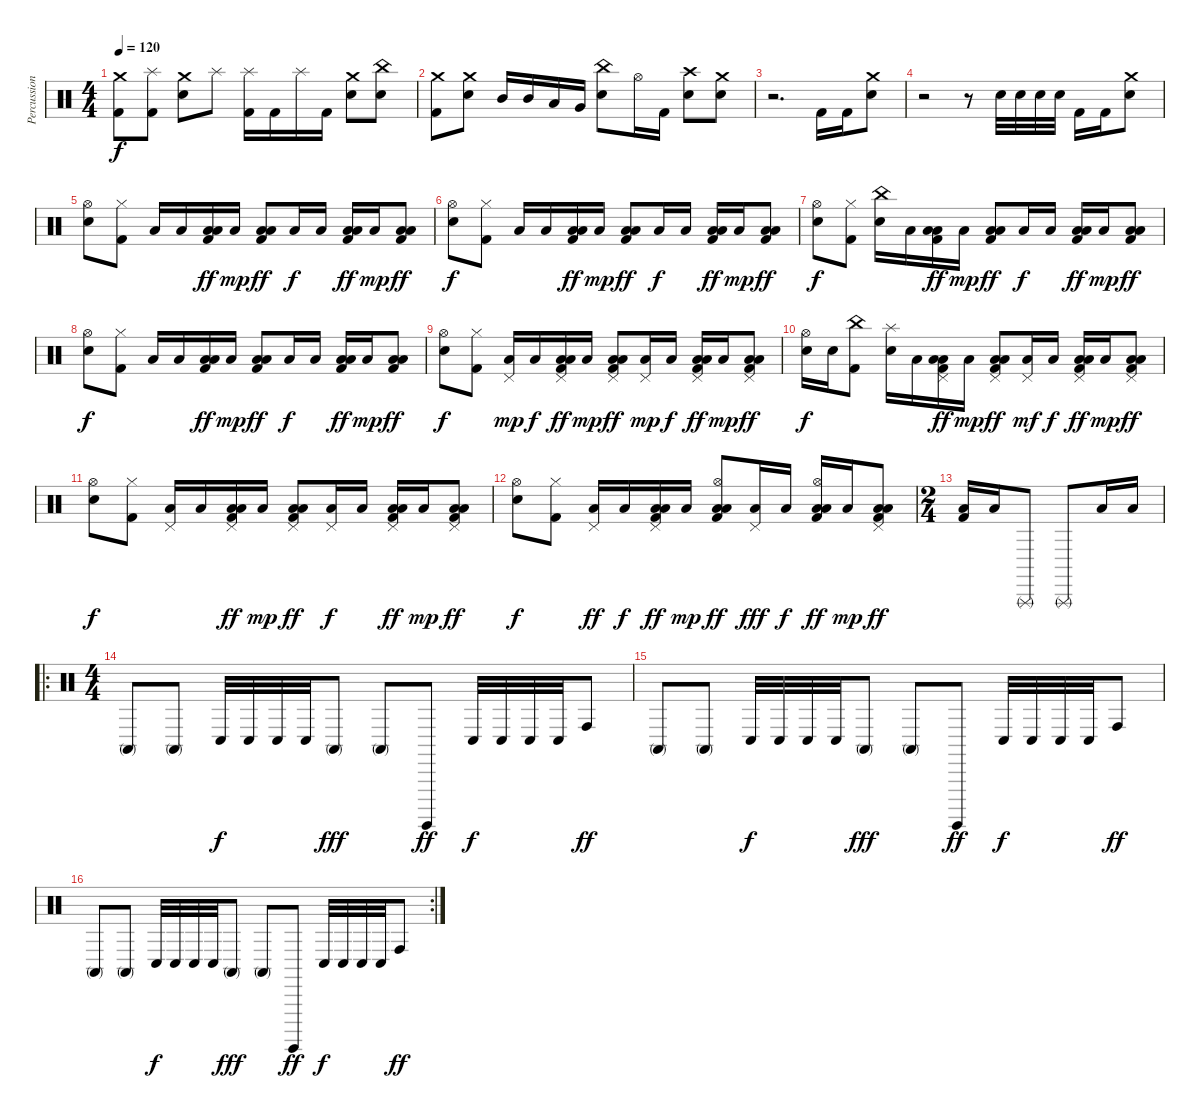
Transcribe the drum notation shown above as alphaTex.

\track ("Percussion" "Percussion") {instrument percussion}
\staff {score}
\articulation defaults
\ts (4 4)
\tempo 120
\clef neutral
\ks c
("Crash medium (hit)" "Kick (hit) 2").8{dy f} ("Splash (hit)" "Kick (hit) 2").8 ("Crash medium (hit)" "Snare (hit) 2").8 "Splash (hit)".8 ("Splash (hit)" "Kick (hit) 2").16 "Kick (hit) 2".16 "Splash (hit)".16 "Kick (hit) 2".16 ("Crash medium (hit)" "Snare (hit) 2").8 ("China (hit)" "Snare (hit) 2").8 |
("Crash medium (hit)" "Kick (hit) 2").8 ("Crash medium (hit)" "Snare (hit) 2").8 "Mid Tom (hit)".16 "Mid Tom (hit)".16 "Low Tom (hit)".16 "Very Low Tom (hit)".16 ("China (hit)" "Snare (hit) 2").8 "Hi-Hat (open)".16 "Kick (hit) 2".16 ("Crash high (hit)" "Snare (hit) 2").8 ("Crash medium (hit)" "Snare (hit) 2").8 |
r.2{d} "Kick (hit) 2".16 "Kick (hit) 2".16 ("Crash medium (hit)" "Snare (hit) 2").8 |
r.2 r.8 "Snare (hit) 2".32 "Snare (hit) 2".32 "Snare (hit) 2".32 "Snare (hit) 2".32 "Kick (hit) 2".16 "Kick (hit) 2".16 ("Crash medium (hit)" "Snare (hit) 2").8 |
("Snare (hit) 2" "Hi-Hat (open)").8 ("Kick (hit) 2" "Hi-Hat (closed)").8 "Low Floor Tom (hit)".16 "Low Floor Tom (hit)".16 ("Low Floor Tom (hit)" "Low Tom (hit)" "Kick (hit) 2").16{dy ff} "Low Tom (hit)".16{dy mp} ("Low Floor Tom (hit)" "Low Tom (hit)" "Kick (hit) 2").8{dy ff} "Low Floor Tom (hit)".16{dy f} "Low Floor Tom (hit)".16 ("Low Floor Tom (hit)" "Low Tom (hit)" "Kick (hit) 2").16{dy ff} "Low Tom (hit)".16{dy mp} ("Low Floor Tom (hit)" "Low Tom (hit)" "Kick (hit) 2").8{dy ff} |
("Snare (hit) 2" "Hi-Hat (open)").8{dy f} ("Kick (hit) 2" "Hi-Hat (closed)").8 "Low Floor Tom (hit)".16 "Low Floor Tom (hit)".16 ("Low Floor Tom (hit)" "Low Tom (hit)" "Kick (hit) 2").16{dy ff} "Low Tom (hit)".16{dy mp} ("Low Floor Tom (hit)" "Low Tom (hit)" "Kick (hit) 2").8{dy ff} "Low Floor Tom (hit)".16{dy f} "Low Floor Tom (hit)".16 ("Low Floor Tom (hit)" "Low Tom (hit)" "Kick (hit) 2").16{dy ff} "Low Tom (hit)".16{dy mp} ("Low Floor Tom (hit)" "Low Tom (hit)" "Kick (hit) 2").8{dy ff} |
("Snare (hit) 2" "Hi-Hat (open)").8{dy f} ("Kick (hit) 2" "Hi-Hat (closed)").8 ("Snare (hit) 2" "China (hit)").16 "Low Floor Tom (hit)".16 ("Low Floor Tom (hit)" "Low Tom (hit)" "Kick (hit) 2").16{dy ff} "Low Tom (hit)".16{dy mp} ("Low Floor Tom (hit)" "Low Tom (hit)" "Kick (hit) 2").8{dy ff} "Low Floor Tom (hit)".16{dy f} "Low Floor Tom (hit)".16 ("Low Floor Tom (hit)" "Low Tom (hit)" "Kick (hit) 2").16{dy ff} "Low Tom (hit)".16{dy mp} ("Low Floor Tom (hit)" "Low Tom (hit)" "Kick (hit) 2").8{dy ff} |
("Snare (hit) 2" "Hi-Hat (open)").8{dy f} ("Kick (hit) 2" "Hi-Hat (closed)").8 "Low Floor Tom (hit)".16 "Low Floor Tom (hit)".16 ("Low Floor Tom (hit)" "Low Tom (hit)" "Kick (hit) 2").16{dy ff} "Low Tom (hit)".16{dy mp} ("Low Floor Tom (hit)" "Low Tom (hit)" "Kick (hit) 2").8{dy ff} "Low Floor Tom (hit)".16{dy f} "Low Floor Tom (hit)".16 ("Low Floor Tom (hit)" "Low Tom (hit)" "Kick (hit) 2").16{dy ff} "Low Tom (hit)".16{dy mp} ("Low Floor Tom (hit)" "Low Tom (hit)" "Kick (hit) 2").8{dy ff} |
("Snare (hit) 2" "Hi-Hat (open)").8{dy f} ("Kick (hit) 2" "Hi-Hat (closed)").8 ("Pedal Hi-Hat (hit)" "Low Floor Tom (hit)").16{dy mp} "Low Floor Tom (hit)".16{dy f} ("Pedal Hi-Hat (hit)" "Low Floor Tom (hit)" "Low Tom (hit)" "Kick (hit) 2").16{dy ff} "Low Tom (hit)".16{dy mp} ("Pedal Hi-Hat (hit)" "Low Floor Tom (hit)" "Low Tom (hit)" "Kick (hit) 2").8{dy ff} ("Pedal Hi-Hat (hit)" "Low Floor Tom (hit)").16{dy mp} "Low Floor Tom (hit)".16{dy f} ("Pedal Hi-Hat (hit)" "Low Floor Tom (hit)" "Low Tom (hit)" "Kick (hit) 2").16{dy ff} "Low Tom (hit)".16{dy mp} ("Pedal Hi-Hat (hit)" "Low Floor Tom (hit)" "Low Tom (hit)" "Kick (hit) 2").8{dy ff} |
("Snare (hit) 2" "Hi-Hat (open)").16{dy f} "Snare (hit) 2".16 ("Kick (hit) 2" "China (hit)").8 ("Snare (hit) 2" "Splash (hit)").16 "Low Floor Tom (hit)".16 ("Pedal Hi-Hat (hit)" "Low Floor Tom (hit)" "Low Tom (hit)" "Kick (hit) 2").16{dy ff} "Low Tom (hit)".16{dy mp} ("Pedal Hi-Hat (hit)" "Low Floor Tom (hit)" "Low Tom (hit)" "Kick (hit) 2").8{dy ff} ("Pedal Hi-Hat (hit)" "Low Floor Tom (hit)").16{dy mf} "Low Floor Tom (hit)".16{dy f} ("Pedal Hi-Hat (hit)" "Low Floor Tom (hit)" "Low Tom (hit)" "Kick (hit) 2").16{dy ff} "Low Tom (hit)".16{dy mp} ("Pedal Hi-Hat (hit)" "Low Floor Tom (hit)" "Low Tom (hit)" "Kick (hit) 2").8{dy ff} |
("Snare (hit) 2" "Hi-Hat (open)").8{dy f} ("Kick (hit) 2" "Hi-Hat (closed)").8 ("Pedal Hi-Hat (hit)" "Low Floor Tom (hit)").16 "Low Floor Tom (hit)".16 ("Pedal Hi-Hat (hit)" "Low Floor Tom (hit)" "Low Tom (hit)" "Kick (hit) 2").16{dy ff} "Low Tom (hit)".16{dy mp} ("Pedal Hi-Hat (hit)" "Low Floor Tom (hit)" "Low Tom (hit)" "Kick (hit) 2").8{dy ff} ("Pedal Hi-Hat (hit)" "Low Floor Tom (hit)").16{dy f} "Low Floor Tom (hit)".16 ("Pedal Hi-Hat (hit)" "Low Floor Tom (hit)" "Low Tom (hit)" "Kick (hit) 2").16{dy ff} "Low Tom (hit)".16{dy mp} ("Pedal Hi-Hat (hit)" "Low Floor Tom (hit)" "Low Tom (hit)" "Kick (hit) 2").8{dy ff} |
("Snare (hit) 2" "Hi-Hat (open)").8{dy f} ("Kick (hit) 2" "Hi-Hat (closed)").8 ("Pedal Hi-Hat (hit)" "Low Floor Tom (hit)").16{dy ff} "Low Floor Tom (hit)".16{dy f} ("Pedal Hi-Hat (hit)" "Low Floor Tom (hit)" "Low Tom (hit)" "Kick (hit) 2").16{dy ff} "Low Tom (hit)".16{dy mp} ("Hi-Hat (open)" "Low Floor Tom (hit)" "Low Tom (hit)" "Kick (hit) 2").8{dy ff} ("Pedal Hi-Hat (hit)" "Low Floor Tom (hit)").16{dy fff} "Low Floor Tom (hit)".16{dy f} ("Hi-Hat (open)" "Low Floor Tom (hit)" "Low Tom (hit)" "Kick (hit) 2").16{dy ff} "Low Tom (hit)".16{dy mp} ("Pedal Hi-Hat (hit)" "Low Floor Tom (hit)" "Low Tom (hit)" "Kick (hit) 2").8{dy ff} |
\ts (2 4)
("Kick (hit) 2" "Low Floor Tom (hit)").16 "Low Floor Tom (hit)".16 "Triangle (rnute)".8 "Triangle (rnute)".8 "Low Floor Tom (hit)".16 "Low Floor Tom (hit)".16 |
\ro
\ts (4 4)
"Conga high (mute)".8 "Conga high (mute)".8 "Conga low (hit)".32{dy f} "Conga low (hit)".32 "Conga low (hit)".32 "Conga low (hit)".32 "Conga high (mute)".8{dy fff} "Conga high (mute)".8 "Surdo (hit)".8{dy ff} "Conga low (hit)".32{dy f} "Conga low (hit)".32 "Conga low (hit)".32 "Conga low (hit)".32 "Conga high (hit)".8{dy ff} |
"Conga high (mute)".8 "Conga high (mute)".8 "Conga low (hit)".32{dy f} "Conga low (hit)".32 "Conga low (hit)".32 "Conga low (hit)".32 "Conga high (mute)".8{dy fff} "Conga high (mute)".8 "Surdo (hit)".8{dy ff} "Conga low (hit)".32{dy f} "Conga low (hit)".32 "Conga low (hit)".32 "Conga low (hit)".32 "Conga high (hit)".8{dy ff} |
\rc 2 "Conga high (mute)".8 "Conga high (mute)".8 "Conga low (hit)".32{dy f} "Conga low (hit)".32 "Conga low (hit)".32 "Conga low (hit)".32 "Conga high (mute)".8{dy fff} "Conga high (mute)".8 "Surdo (hit)".8{dy ff} "Conga low (hit)".32{dy f} "Conga low (hit)".32 "Conga low (hit)".32 "Conga low (hit)".32 "Conga high (hit)".8{dy ff}
